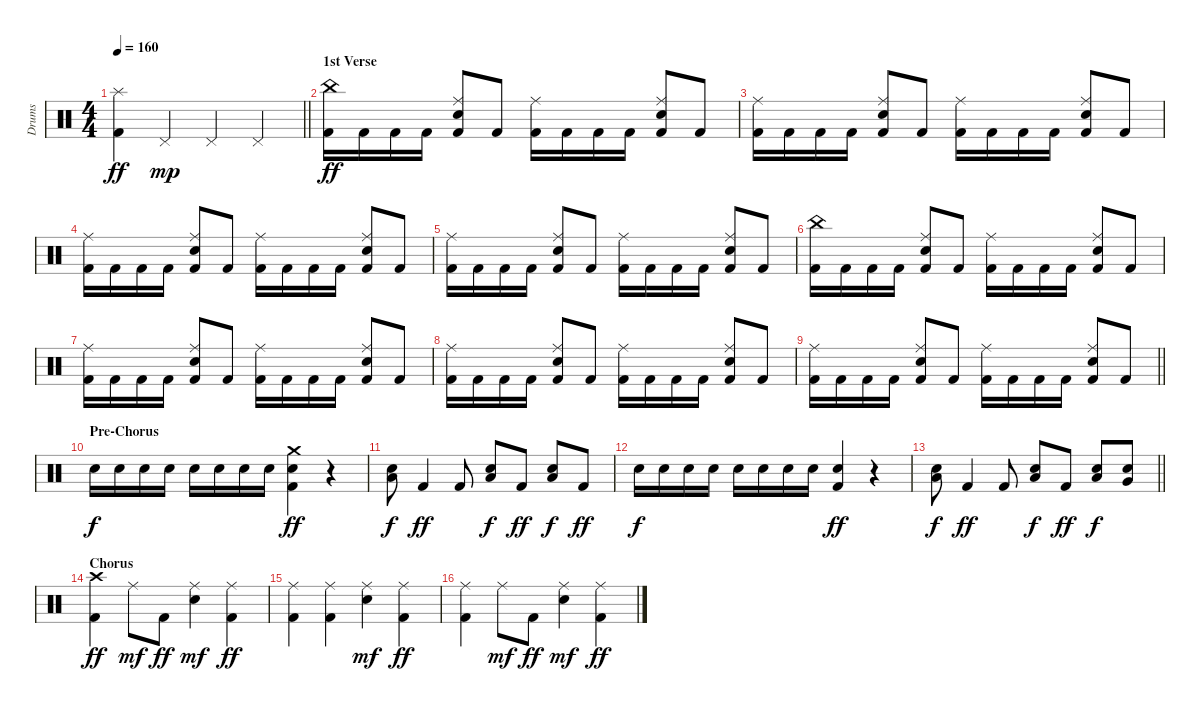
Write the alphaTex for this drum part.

\track ("Drums" "Drums") {instrument percussion}
\staff {score}
\articulation defaults
\ts (4 4)
\tempo 160
\clef neutral
\barLineRight lightlight
\ks c
("Splash (hit)" "Kick (hit) 2").4{dy ff} "Pedal Hi-Hat (hit)".4{dy mp} "Pedal Hi-Hat (hit)".4 "Pedal Hi-Hat (hit)".4 |
\section ("" "1st Verse")
("China (hit)" "Kick (hit) 2").16{dy ff} "Kick (hit) 2".16 "Kick (hit) 2".16 "Kick (hit) 2".16 ("Ride (middle)" "Electric Snare (hit)" "Kick (hit) 2").8 "Kick (hit) 2".8 ("Ride (middle)" "Kick (hit) 2").16 "Kick (hit) 2".16 "Kick (hit) 2".16 "Kick (hit) 2".16 ("Ride (middle)" "Electric Snare (hit)" "Kick (hit) 2").8 "Kick (hit) 2".8 |
("Ride (middle)" "Kick (hit) 2").16 "Kick (hit) 2".16 "Kick (hit) 2".16 "Kick (hit) 2".16 ("Ride (middle)" "Electric Snare (hit)" "Kick (hit) 2").8 "Kick (hit) 2".8 ("Ride (middle)" "Kick (hit) 2").16 "Kick (hit) 2".16 "Kick (hit) 2".16 "Kick (hit) 2".16 ("Ride (middle)" "Electric Snare (hit)" "Kick (hit) 2").8 "Kick (hit) 2".8 |
("Ride (middle)" "Kick (hit) 2").16 "Kick (hit) 2".16 "Kick (hit) 2".16 "Kick (hit) 2".16 ("Ride (middle)" "Electric Snare (hit)" "Kick (hit) 2").8 "Kick (hit) 2".8 ("Ride (middle)" "Kick (hit) 2").16 "Kick (hit) 2".16 "Kick (hit) 2".16 "Kick (hit) 2".16 ("Ride (middle)" "Electric Snare (hit)" "Kick (hit) 2").8 "Kick (hit) 2".8 |
("Ride (middle)" "Kick (hit) 2").16 "Kick (hit) 2".16 "Kick (hit) 2".16 "Kick (hit) 2".16 ("Ride (middle)" "Electric Snare (hit)" "Kick (hit) 2").8 "Kick (hit) 2".8 ("Ride (middle)" "Kick (hit) 2").16 "Kick (hit) 2".16 "Kick (hit) 2".16 "Kick (hit) 2".16 ("Ride (middle)" "Electric Snare (hit)" "Kick (hit) 2").8 "Kick (hit) 2".8 |
("China (hit)" "Kick (hit) 2").16 "Kick (hit) 2".16 "Kick (hit) 2".16 "Kick (hit) 2".16 ("Ride (middle)" "Electric Snare (hit)" "Kick (hit) 2").8 "Kick (hit) 2".8 ("Ride (middle)" "Kick (hit) 2").16 "Kick (hit) 2".16 "Kick (hit) 2".16 "Kick (hit) 2".16 ("Ride (middle)" "Electric Snare (hit)" "Kick (hit) 2").8 "Kick (hit) 2".8 |
("Ride (middle)" "Kick (hit) 2").16 "Kick (hit) 2".16 "Kick (hit) 2".16 "Kick (hit) 2".16 ("Ride (middle)" "Electric Snare (hit)" "Kick (hit) 2").8 "Kick (hit) 2".8 ("Ride (middle)" "Kick (hit) 2").16 "Kick (hit) 2".16 "Kick (hit) 2".16 "Kick (hit) 2".16 ("Ride (middle)" "Electric Snare (hit)" "Kick (hit) 2").8 "Kick (hit) 2".8 |
("Ride (middle)" "Kick (hit) 2").16 "Kick (hit) 2".16 "Kick (hit) 2".16 "Kick (hit) 2".16 ("Ride (middle)" "Electric Snare (hit)" "Kick (hit) 2").8 "Kick (hit) 2".8 ("Ride (middle)" "Kick (hit) 2").16 "Kick (hit) 2".16 "Kick (hit) 2".16 "Kick (hit) 2".16 ("Ride (middle)" "Electric Snare (hit)" "Kick (hit) 2").8 "Kick (hit) 2".8 |
\barLineRight lightlight
("Ride (middle)" "Kick (hit) 2").16 "Kick (hit) 2".16 "Kick (hit) 2".16 "Kick (hit) 2".16 ("Ride (middle)" "Electric Snare (hit)" "Kick (hit) 2").8 "Kick (hit) 2".8 ("Ride (middle)" "Kick (hit) 2").16 "Kick (hit) 2".16 "Kick (hit) 2".16 "Kick (hit) 2".16 ("Ride (middle)" "Electric Snare (hit)" "Kick (hit) 2").8 "Kick (hit) 2".8 |
\section ("" "Pre-Chorus")
"Electric Snare (hit)".16{dy f} "Electric Snare (hit)".16 "Electric Snare (hit)".16 "Electric Snare (hit)".16 "Electric Snare (hit)".16 "Electric Snare (hit)".16 "Electric Snare (hit)".16 "Electric Snare (hit)".16 ("Crash medium (hit)" "Electric Snare (hit)" "Kick (hit) 2").4{dy ff} r.4 |
("Low Tom (hit)" "Electric Snare (hit)").8{dy f} "Kick (hit) 2".4{dy ff} "Kick (hit) 2".8 ("Low Tom (hit)" "Electric Snare (hit)").8{dy f} "Kick (hit) 2".8{dy ff} ("Low Tom (hit)" "Electric Snare (hit)").8{dy f} "Kick (hit) 2".8{dy ff} |
"Electric Snare (hit)".16{dy f} "Electric Snare (hit)".16 "Electric Snare (hit)".16 "Electric Snare (hit)".16 "Electric Snare (hit)".16 "Electric Snare (hit)".16 "Electric Snare (hit)".16 "Electric Snare (hit)".16 ("Electric Snare (hit)" "Kick (hit) 2").4{dy ff} r.4 |
\barLineRight lightlight
("Low Tom (hit)" "Electric Snare (hit)").8{dy f} "Kick (hit) 2".4{dy ff} "Kick (hit) 2".8 ("Low Tom (hit)" "Electric Snare (hit)").8{dy f} "Kick (hit) 2".8{dy ff} ("Low Tom (hit)" "Electric Snare (hit)").8{dy f} ("Very Low Tom (hit)" "Electric Snare (hit)").8 |
\section ("" "Chorus")
("Crash high (hit)" "Kick (hit) 2").4{dy ff} "Ride (middle)".8{dy mf} "Kick (hit) 2".8{dy ff} ("Ride (middle)" "Electric Snare (hit)").4{dy mf} ("Ride (middle)" "Kick (hit) 2").4{dy ff} |
("Ride (middle)" "Kick (hit) 2").4 ("Ride (middle)" "Kick (hit) 2").4 ("Ride (middle)" "Electric Snare (hit)").4{dy mf} ("Ride (middle)" "Kick (hit) 2").4{dy ff} |
("Ride (middle)" "Kick (hit) 2").4 "Ride (middle)".8{dy mf} "Kick (hit) 2".8{dy ff} ("Ride (middle)" "Electric Snare (hit)").4{dy mf} ("Ride (middle)" "Kick (hit) 2").4{dy ff}
